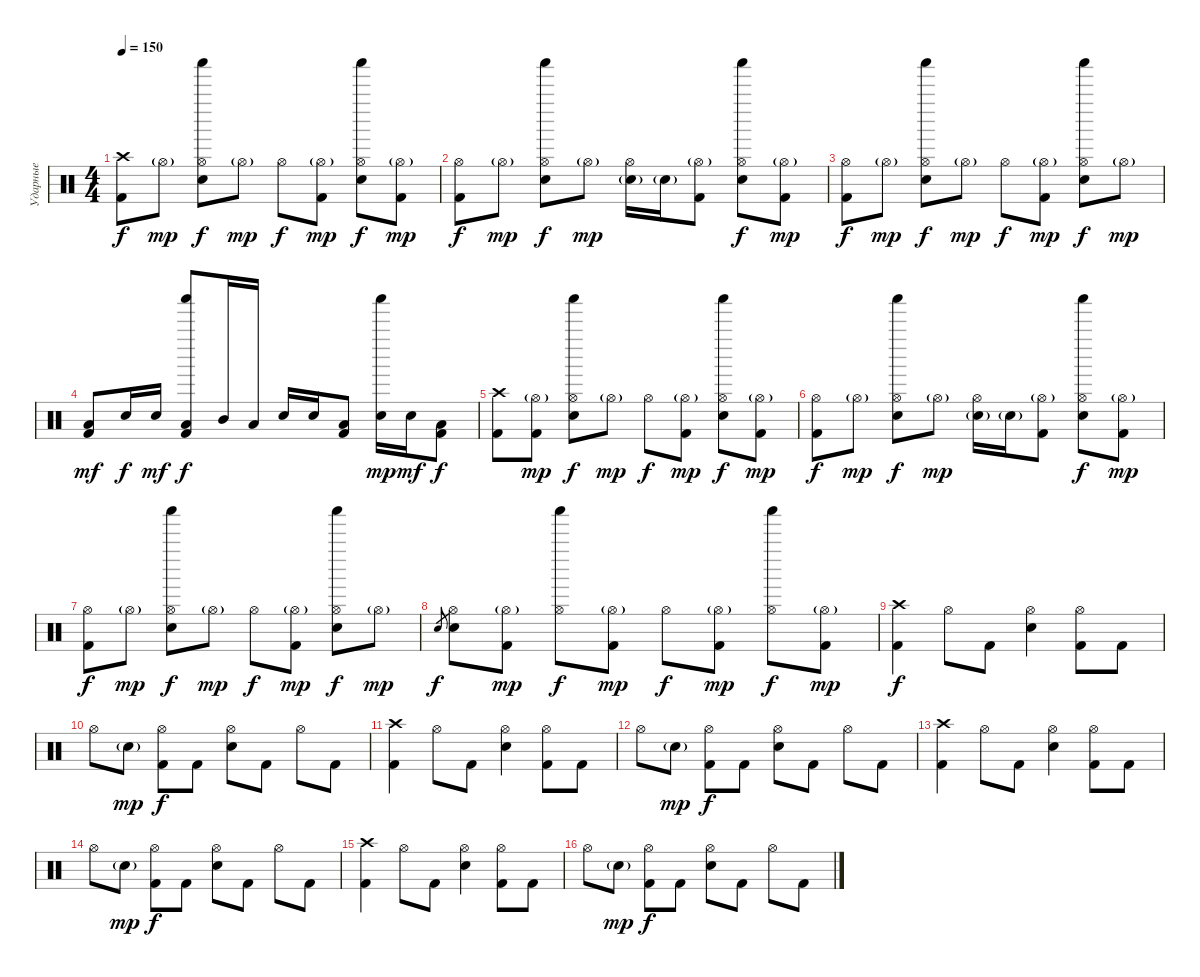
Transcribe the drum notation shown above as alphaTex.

\track ("Ударные" "Ударные") {instrument percussion}
\staff {score}
\articulation defaults
\ts (4 4)
\tempo 150
\clef neutral
\ks c
("Crash high (hit)" "Kick (hit) 2").8{dy f} "Hi-Hat (open)"{g}.8{dy mp} ("Shaker (hit)" "Hi-Hat (open)" "Snare (hit) 2").8{dy f} "Hi-Hat (open)"{g}.8{dy mp} "Hi-Hat (open)".8{dy f} ("Hi-Hat (open)"{g} "Kick (hit) 2").8{dy mp} ("Shaker (hit)" "Hi-Hat (open)" "Snare (hit) 2").8{dy f} ("Hi-Hat (open)"{g} "Kick (hit) 2").8{dy mp} |
("Hi-Hat (open)" "Kick (hit) 2").8{dy f} "Hi-Hat (open)"{g}.8{dy mp} ("Shaker (hit)" "Hi-Hat (open)" "Snare (hit) 2").8{dy f} "Hi-Hat (open)"{g}.8{dy mp} ("Hi-Hat (open)" "Snare (hit) 2"{g}).16 "Snare (hit) 2"{g}.16 ("Hi-Hat (open)"{g} "Kick (hit) 2").8 ("Shaker (hit)" "Hi-Hat (open)" "Snare (hit) 2").8{dy f} ("Hi-Hat (open)"{g} "Kick (hit) 2").8{dy mp} |
("Hi-Hat (open)" "Kick (hit) 2").8{dy f} "Hi-Hat (open)"{g}.8{dy mp} ("Shaker (hit)" "Hi-Hat (open)" "Snare (hit) 2").8{dy f} "Hi-Hat (open)"{g}.8{dy mp} "Hi-Hat (open)".8{dy f} ("Hi-Hat (open)"{g} "Kick (hit) 2").8{dy mp} ("Shaker (hit)" "Hi-Hat (open)" "Snare (hit) 2").8{dy f} "Hi-Hat (open)"{g}.8{dy mp} |
("Low Tom (hit)" "Kick (hit) 2").8{dy mf} "Snare (hit) 2".16{dy f} "Snare (hit) 2".16{dy mf} ("Shaker (hit)" "Low Tom (hit)" "Kick (hit) 2").8{dy f} "Mid Tom (hit)".16 "Low Tom (hit)".16 "Snare (hit) 2".16 "Snare (hit) 2".16 ("Low Tom (hit)" "Kick (hit) 2").8 ("Shaker (hit)" "Snare (hit) 2").16{dy mp} "Snare (hit) 2".16{dy mf} ("Low Tom (hit)" "Kick (hit) 2").8{dy f} |
("Crash high (hit)" "Kick (hit) 2").8 ("Hi-Hat (open)"{g} "Kick (hit) 2").8{dy mp} ("Shaker (hit)" "Hi-Hat (open)" "Snare (hit) 2").8{dy f} "Hi-Hat (open)"{g}.8{dy mp} "Hi-Hat (open)".8{dy f} ("Hi-Hat (open)"{g} "Kick (hit) 2").8{dy mp} ("Shaker (hit)" "Hi-Hat (open)" "Snare (hit) 2").8{dy f} ("Hi-Hat (open)"{g} "Kick (hit) 2").8{dy mp} |
("Hi-Hat (open)" "Kick (hit) 2").8{dy f} "Hi-Hat (open)"{g}.8{dy mp} ("Shaker (hit)" "Hi-Hat (open)" "Snare (hit) 2").8{dy f} "Hi-Hat (open)"{g}.8{dy mp} ("Hi-Hat (open)" "Snare (hit) 2"{g}).16 "Snare (hit) 2"{g}.16 ("Hi-Hat (open)"{g} "Kick (hit) 2").8 ("Shaker (hit)" "Hi-Hat (open)" "Snare (hit) 2").8{dy f} ("Hi-Hat (open)"{g} "Kick (hit) 2").8{dy mp} |
("Hi-Hat (open)" "Kick (hit) 2").8{dy f} "Hi-Hat (open)"{g}.8{dy mp} ("Shaker (hit)" "Hi-Hat (open)" "Snare (hit) 2").8{dy f} "Hi-Hat (open)"{g}.8{dy mp} "Hi-Hat (open)".8{dy f} ("Hi-Hat (open)"{g} "Kick (hit) 2").8{dy mp} ("Shaker (hit)" "Hi-Hat (open)" "Snare (hit) 2").8{dy f} "Hi-Hat (open)"{g}.8{dy mp} |
"Snare (hit) 2".8{gr dy f} ("Hi-Hat (open)" "Snare (hit) 2").8 ("Hi-Hat (open)"{g} "Kick (hit) 2").8{dy mp} ("Shaker (hit)" "Hi-Hat (open)").8{dy f} ("Hi-Hat (open)"{g} "Kick (hit) 2").8{dy mp} "Hi-Hat (open)".8{dy f} ("Hi-Hat (open)"{g} "Kick (hit) 2").8{dy mp} ("Shaker (hit)" "Hi-Hat (open)").8{dy f} ("Hi-Hat (open)"{g} "Kick (hit) 2").8{dy mp} |
("Crash high (hit)" "Kick (hit) 2").4{dy f} "Hi-Hat (open)".8 "Kick (hit) 2".8 ("Hi-Hat (open)" "Snare (hit) 2").4 ("Hi-Hat (open)" "Kick (hit) 2").8 "Kick (hit) 2".8 |
"Hi-Hat (open)".8 "Snare (hit) 2"{g}.8{dy mp} ("Hi-Hat (open)" "Kick (hit) 2").8{dy f} "Kick (hit) 2".8 ("Hi-Hat (open)" "Snare (hit) 2").8 "Kick (hit) 2".8 "Hi-Hat (open)".8 "Kick (hit) 2".8 |
("Crash high (hit)" "Kick (hit) 2").4 "Hi-Hat (open)".8 "Kick (hit) 2".8 ("Hi-Hat (open)" "Snare (hit) 2").4 ("Hi-Hat (open)" "Kick (hit) 2").8 "Kick (hit) 2".8 |
"Hi-Hat (open)".8 "Snare (hit) 2"{g}.8{dy mp} ("Hi-Hat (open)" "Kick (hit) 2").8{dy f} "Kick (hit) 2".8 ("Hi-Hat (open)" "Snare (hit) 2").8 "Kick (hit) 2".8 "Hi-Hat (open)".8 "Kick (hit) 2".8 |
("Crash high (hit)" "Kick (hit) 2").4 "Hi-Hat (open)".8 "Kick (hit) 2".8 ("Hi-Hat (open)" "Snare (hit) 2").4 ("Hi-Hat (open)" "Kick (hit) 2").8 "Kick (hit) 2".8 |
"Hi-Hat (open)".8 "Snare (hit) 2"{g}.8{dy mp} ("Hi-Hat (open)" "Kick (hit) 2").8{dy f} "Kick (hit) 2".8 ("Hi-Hat (open)" "Snare (hit) 2").8 "Kick (hit) 2".8 "Hi-Hat (open)".8 "Kick (hit) 2".8 |
("Crash high (hit)" "Kick (hit) 2").4 "Hi-Hat (open)".8 "Kick (hit) 2".8 ("Hi-Hat (open)" "Snare (hit) 2").4 ("Hi-Hat (open)" "Kick (hit) 2").8 "Kick (hit) 2".8 |
"Hi-Hat (open)".8 "Snare (hit) 2"{g}.8{dy mp} ("Hi-Hat (open)" "Kick (hit) 2").8{dy f} "Kick (hit) 2".8 ("Hi-Hat (open)" "Snare (hit) 2").8 "Kick (hit) 2".8 "Hi-Hat (open)".8 "Kick (hit) 2".8
